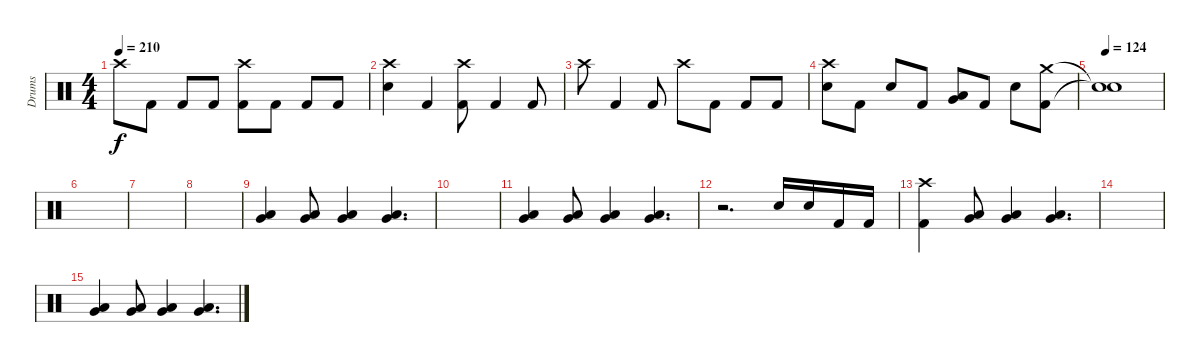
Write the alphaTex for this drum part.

\track ("Drums" "Drums") {instrument percussion}
\staff {score}
\articulation defaults
\ts (4 4)
\tempo 210
\clef neutral
\ks c "Crash high (hit)".8{dy f} "Kick (hit) 2".8 "Kick (hit) 2".8 "Kick (hit) 2".8
("Crash high (hit)" "Kick (hit) 2").8 "Kick (hit) 2".8 "Kick (hit) 2".8 "Kick (hit) 2".8 |
("Crash high (hit)" "Electric Snare (hit)").4 "Kick (hit) 2".4 ("Crash high (hit)" "Kick (hit) 2").8 "Kick (hit) 2".4 "Kick (hit) 2".8 |
"Crash high (hit)".8 "Kick (hit) 2".4 "Kick (hit) 2".8 "Crash high (hit)".8 "Kick (hit) 2".8 "Kick (hit) 2".8 "Kick (hit) 2".8 |
("Crash high (hit)" "Electric Snare (hit)").8 "Kick (hit) 2".8 "Electric Snare (hit)".8 "Kick (hit) 2".8 ("Low Tom (hit)" "Very Low Tom (hit)").8 "Kick (hit) 2".8 "Electric Snare (hit)".8 ("Crash medium (hit)" "Kick (hit) 2").8 |
\tempo 124
("Snare (hit)"{t} "Snare (hit)"{t}).1 |
|
|
|
("Very Low Tom (hit)" "Low Floor Tom (hit)").4 ("Very Low Tom (hit)" "Low Floor Tom (hit)").8 ("Very Low Tom (hit)" "Low Floor Tom (hit)").4 ("Very Low Tom (hit)" "Low Floor Tom (hit)").4{d} |
|
("Very Low Tom (hit)" "Low Floor Tom (hit)").4 ("Very Low Tom (hit)" "Low Floor Tom (hit)").8 ("Very Low Tom (hit)" "Low Floor Tom (hit)").4 ("Very Low Tom (hit)" "Low Floor Tom (hit)").4{d} |
r.2{d} "Electric Snare (hit)".16 "Electric Snare (hit)".16 "Kick (hit) 2".16 "Kick (hit) 2".16 |
("Crash high (hit)" "Kick (hit) 2").4 ("Very Low Tom (hit)" "Low Floor Tom (hit)").8 ("Very Low Tom (hit)" "Low Floor Tom (hit)").4 ("Very Low Tom (hit)" "Low Floor Tom (hit)").4{d} |
|
("Very Low Tom (hit)" "Low Floor Tom (hit)").4 ("Very Low Tom (hit)" "Low Floor Tom (hit)").8 ("Very Low Tom (hit)" "Low Floor Tom (hit)").4 ("Very Low Tom (hit)" "Low Floor Tom (hit)").4{d}
